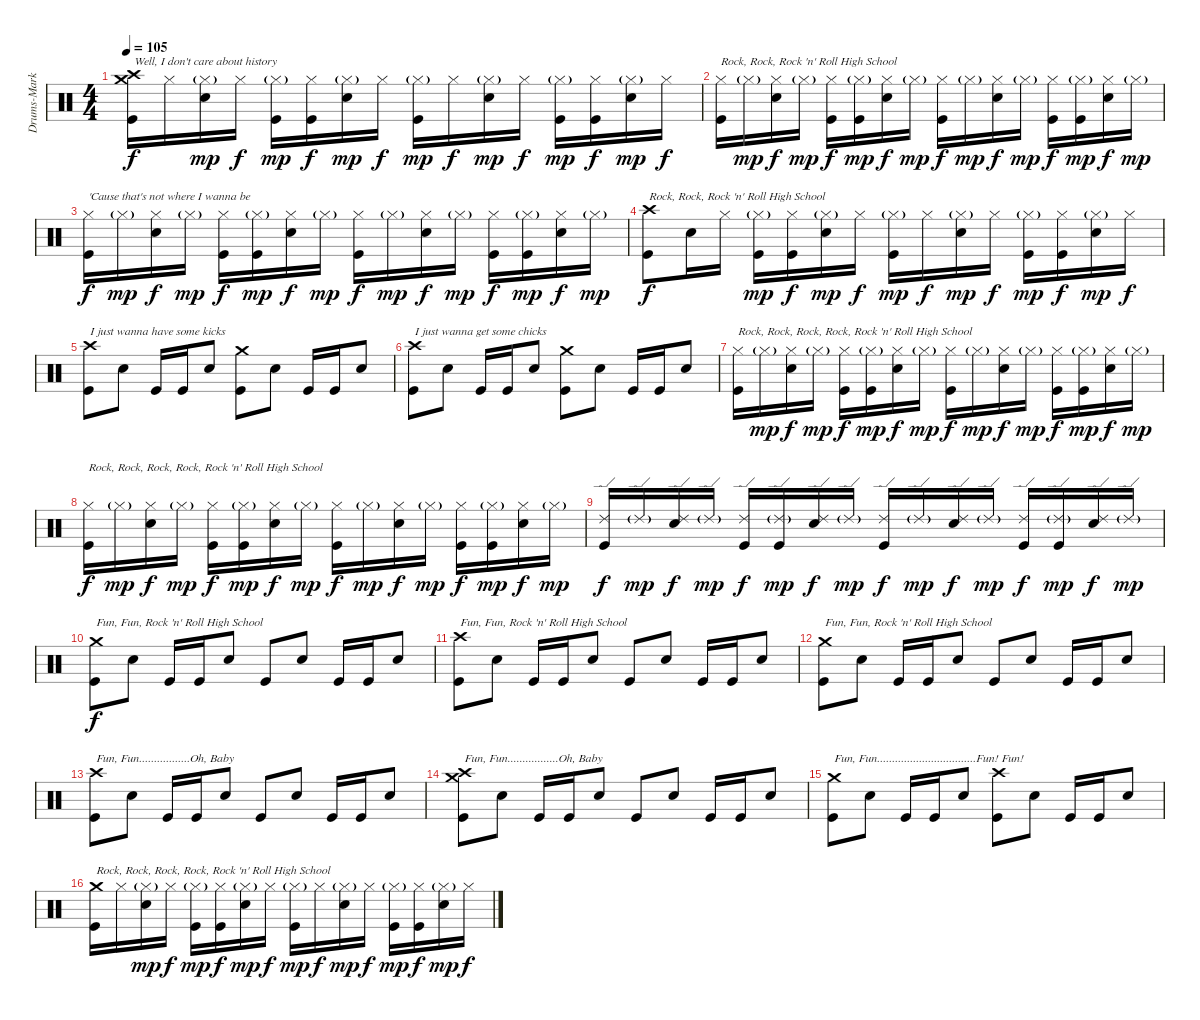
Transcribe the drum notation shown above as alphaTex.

\track ("Drums-Marky Ramone" "Drums-Mark") {instrument percussion}
\staff {score}
\articulation defaults
\ts (4 4)
\tempo 105
\clef neutral
\ks c
("Crash medium (hit)" "Crash high (hit)" "Kick (hit)").16{txt "Well, I don't care about history" dy f} "Hi-Hat (closed)".16 ("Hi-Hat (closed)"{g} "Snare (hit) 2").16{dy mp} "Hi-Hat (closed)".16{dy f} ("Hi-Hat (closed)"{g} "Kick (hit)").16{dy mp} ("Hi-Hat (closed)" "Kick (hit)").16{dy f} ("Hi-Hat (closed)"{g} "Snare (hit) 2").16{dy mp} "Hi-Hat (closed)".16{dy f} ("Hi-Hat (closed)"{g} "Kick (hit)").16{dy mp} "Hi-Hat (closed)".16{dy f} ("Hi-Hat (closed)"{g} "Snare (hit) 2").16{dy mp} "Hi-Hat (closed)".16{dy f} ("Hi-Hat (closed)"{g} "Kick (hit)").16{dy mp} ("Hi-Hat (closed)" "Kick (hit)").16{dy f} ("Hi-Hat (closed)"{g} "Snare (hit) 2").16{dy mp} "Hi-Hat (closed)".16{dy f} |
("Hi-Hat (closed)" "Kick (hit)").16{txt "Rock, Rock, Rock 'n' Roll High School"} "Hi-Hat (closed)"{g}.16{dy mp} ("Hi-Hat (closed)" "Snare (hit) 2").16{dy f} "Hi-Hat (closed)"{g}.16{dy mp} ("Hi-Hat (closed)" "Kick (hit)").16{dy f} ("Hi-Hat (closed)"{g} "Kick (hit)").16{dy mp} ("Hi-Hat (closed)" "Snare (hit) 2").16{dy f} "Hi-Hat (closed)"{g}.16{dy mp} ("Hi-Hat (closed)" "Kick (hit)").16{dy f} "Hi-Hat (closed)"{g}.16{dy mp} ("Hi-Hat (closed)" "Snare (hit) 2").16{dy f} "Hi-Hat (closed)"{g}.16{dy mp} ("Hi-Hat (closed)" "Kick (hit)").16{dy f} ("Hi-Hat (closed)"{g} "Kick (hit)").16{dy mp} ("Hi-Hat (closed)" "Snare (hit) 2").16{dy f} "Hi-Hat (closed)"{g}.16{dy mp} |
("Hi-Hat (closed)" "Kick (hit)").16{txt "'Cause that's not where I wanna be" dy f} "Hi-Hat (closed)"{g}.16{dy mp} ("Hi-Hat (closed)" "Snare (hit) 2").16{dy f} "Hi-Hat (closed)"{g}.16{dy mp} ("Hi-Hat (closed)" "Kick (hit)").16{dy f} ("Hi-Hat (closed)"{g} "Kick (hit)").16{dy mp} ("Hi-Hat (closed)" "Snare (hit) 2").16{dy f} "Hi-Hat (closed)"{g}.16{dy mp} ("Hi-Hat (closed)" "Kick (hit)").16{dy f} "Hi-Hat (closed)"{g}.16{dy mp} ("Hi-Hat (closed)" "Snare (hit) 2").16{dy f} "Hi-Hat (closed)"{g}.16{dy mp} ("Hi-Hat (closed)" "Kick (hit)").16{dy f} ("Hi-Hat (closed)"{g} "Kick (hit)").16{dy mp} ("Hi-Hat (closed)" "Snare (hit) 2").16{dy f} "Hi-Hat (closed)"{g}.16{dy mp} |
("Crash high (hit)" "Kick (hit)").8{txt "Rock, Rock, Rock 'n' Roll High School" dy f} "Snare (hit) 2".16 "Hi-Hat (closed)".16 ("Hi-Hat (closed)"{g} "Kick (hit)").16{dy mp} ("Hi-Hat (closed)" "Kick (hit)").16{dy f} ("Hi-Hat (closed)"{g} "Snare (hit) 2").16{dy mp} "Hi-Hat (closed)".16{dy f} ("Hi-Hat (closed)"{g} "Kick (hit)").16{dy mp} "Hi-Hat (closed)".16{dy f} ("Hi-Hat (closed)"{g} "Snare (hit) 2").16{dy mp} "Hi-Hat (closed)".16{dy f} ("Hi-Hat (closed)"{g} "Kick (hit)").16{dy mp} ("Hi-Hat (closed)" "Kick (hit)").16{dy f} ("Hi-Hat (closed)"{g} "Snare (hit) 2").16{dy mp} "Hi-Hat (closed)".16{dy f} |
("Crash high (hit)" "Kick (hit)").8{txt "I just wanna have some kicks"} "Snare (hit) 2".8 "Kick (hit)".16 "Kick (hit)".16 "Snare (hit) 2".8 ("Crash medium (hit)" "Kick (hit)").8 "Snare (hit) 2".8 "Kick (hit)".16 "Kick (hit)".16 "Snare (hit) 2".8 |
("Crash high (hit)" "Kick (hit)").8{txt "I just wanna get some chicks"} "Snare (hit) 2".8 "Kick (hit)".16 "Kick (hit)".16 "Snare (hit) 2".8 ("Crash medium (hit)" "Kick (hit)").8 "Snare (hit) 2".8 "Kick (hit)".16 "Kick (hit)".16 "Snare (hit) 2".8 |
("Hi-Hat (closed)" "Kick (hit)").16{txt "Rock, Rock, Rock, Rock, Rock 'n' Roll High School"} "Hi-Hat (closed)"{g}.16{dy mp} ("Hi-Hat (closed)" "Snare (hit) 2").16{dy f} "Hi-Hat (closed)"{g}.16{dy mp} ("Hi-Hat (closed)" "Kick (hit)").16{dy f} ("Hi-Hat (closed)"{g} "Kick (hit)").16{dy mp} ("Hi-Hat (closed)" "Snare (hit) 2").16{dy f} "Hi-Hat (closed)"{g}.16{dy mp} ("Hi-Hat (closed)" "Kick (hit)").16{dy f} "Hi-Hat (closed)"{g}.16{dy mp} ("Hi-Hat (closed)" "Snare (hit) 2").16{dy f} "Hi-Hat (closed)"{g}.16{dy mp} ("Hi-Hat (closed)" "Kick (hit)").16{dy f} ("Hi-Hat (closed)"{g} "Kick (hit)").16{dy mp} ("Hi-Hat (closed)" "Snare (hit) 2").16{dy f} "Hi-Hat (closed)"{g}.16{dy mp} |
("Hi-Hat (closed)" "Kick (hit)").16{txt "Rock, Rock, Rock, Rock, Rock 'n' Roll High School" dy f} "Hi-Hat (closed)"{g}.16{dy mp} ("Hi-Hat (closed)" "Snare (hit) 2").16{dy f} "Hi-Hat (closed)"{g}.16{dy mp} ("Hi-Hat (closed)" "Kick (hit)").16{dy f} ("Hi-Hat (closed)"{g} "Kick (hit)").16{dy mp} ("Hi-Hat (closed)" "Snare (hit) 2").16{dy f} "Hi-Hat (closed)"{g}.16{dy mp} ("Hi-Hat (closed)" "Kick (hit)").16{dy f} "Hi-Hat (closed)"{g}.16{dy mp} ("Hi-Hat (closed)" "Snare (hit) 2").16{dy f} "Hi-Hat (closed)"{g}.16{dy mp} ("Hi-Hat (closed)" "Kick (hit)").16{dy f} ("Hi-Hat (closed)"{g} "Kick (hit)").16{dy mp} ("Hi-Hat (closed)" "Snare (hit) 2").16{dy f} "Hi-Hat (closed)"{g}.16{dy mp} |
("Ride (edge) 2" "Kick (hit)").16{dy f} "Ride (edge) 2"{g}.16{dy mp} ("Ride (edge) 2" "Snare (hit) 2").16{dy f} "Ride (edge) 2"{g}.16{dy mp} ("Ride (edge) 2" "Kick (hit)").16{dy f} ("Ride (edge) 2"{g} "Kick (hit)").16{dy mp} ("Ride (edge) 2" "Snare (hit) 2").16{dy f} "Ride (edge) 2"{g}.16{dy mp} ("Ride (edge) 2" "Kick (hit)").16{dy f} "Ride (edge) 2"{g}.16{dy mp} ("Ride (edge) 2" "Snare (hit) 2").16{dy f} "Ride (edge) 2"{g}.16{dy mp} ("Ride (edge) 2" "Kick (hit)").16{dy f} ("Ride (edge) 2"{g} "Kick (hit)").16{dy mp} ("Ride (edge) 2" "Snare (hit) 2").16{dy f} "Ride (edge) 2"{g}.16{dy mp} |
("Crash medium (hit)" "Kick (hit)").8{txt "Fun, Fun, Rock 'n' Roll High School" dy f} "Snare (hit) 2".8 "Kick (hit)".16 "Kick (hit)".16 "Snare (hit) 2".8 "Kick (hit)".8 "Snare (hit) 2".8 "Kick (hit)".16 "Kick (hit)".16 "Snare (hit) 2".8 |
("Crash high (hit)" "Kick (hit)").8{txt "Fun, Fun, Rock 'n' Roll High School"} "Snare (hit) 2".8 "Kick (hit)".16 "Kick (hit)".16 "Snare (hit) 2".8 "Kick (hit)".8 "Snare (hit) 2".8 "Kick (hit)".16 "Kick (hit)".16 "Snare (hit) 2".8 |
("Crash medium (hit)" "Kick (hit)").8{txt "Fun, Fun, Rock 'n' Roll High School"} "Snare (hit) 2".8 "Kick (hit)".16 "Kick (hit)".16 "Snare (hit) 2".8 "Kick (hit)".8 "Snare (hit) 2".8 "Kick (hit)".16 "Kick (hit)".16 "Snare (hit) 2".8 |
("Crash high (hit)" "Kick (hit)").8{txt "Fun, Fun.................Oh, Baby"} "Snare (hit) 2".8 "Kick (hit)".16 "Kick (hit)".16 "Snare (hit) 2".8 "Kick (hit)".8 "Snare (hit) 2".8 "Kick (hit)".16 "Kick (hit)".16 "Snare (hit) 2".8 |
("Crash medium (hit)" "Crash high (hit)" "Kick (hit)").8{txt "Fun, Fun.................Oh, Baby"} "Snare (hit) 2".8 "Kick (hit)".16 "Kick (hit)".16 "Snare (hit) 2".8 "Kick (hit)".8 "Snare (hit) 2".8 "Kick (hit)".16 "Kick (hit)".16 "Snare (hit) 2".8 |
("Crash medium (hit)" "Kick (hit)").8{txt "Fun, Fun.................................Fun! Fun!"} "Snare (hit) 2".8 "Kick (hit)".16 "Kick (hit)".16 "Snare (hit) 2".8 ("Crash high (hit)" "Kick (hit)").8 "Snare (hit) 2".8 "Kick (hit)".16 "Kick (hit)".16 "Snare (hit) 2".8 |
("Crash medium (hit)" "Kick (hit)").16{txt "Rock, Rock, Rock, Rock, Rock 'n' Roll High School"} "Hi-Hat (closed)".16 ("Hi-Hat (closed)"{g} "Snare (hit) 2").16{dy mp} "Hi-Hat (closed)".16{dy f} ("Hi-Hat (closed)"{g} "Kick (hit)").16{dy mp} ("Hi-Hat (closed)" "Kick (hit)").16{dy f} ("Hi-Hat (closed)"{g} "Snare (hit) 2").16{dy mp} "Hi-Hat (closed)".16{dy f} ("Hi-Hat (closed)"{g} "Kick (hit)").16{dy mp} "Hi-Hat (closed)".16{dy f} ("Hi-Hat (closed)"{g} "Snare (hit) 2").16{dy mp} "Hi-Hat (closed)".16{dy f} ("Hi-Hat (closed)"{g} "Kick (hit)").16{dy mp} ("Hi-Hat (closed)" "Kick (hit)").16{dy f} ("Hi-Hat (closed)"{g} "Snare (hit) 2").16{dy mp} "Hi-Hat (closed)".16{dy f}
